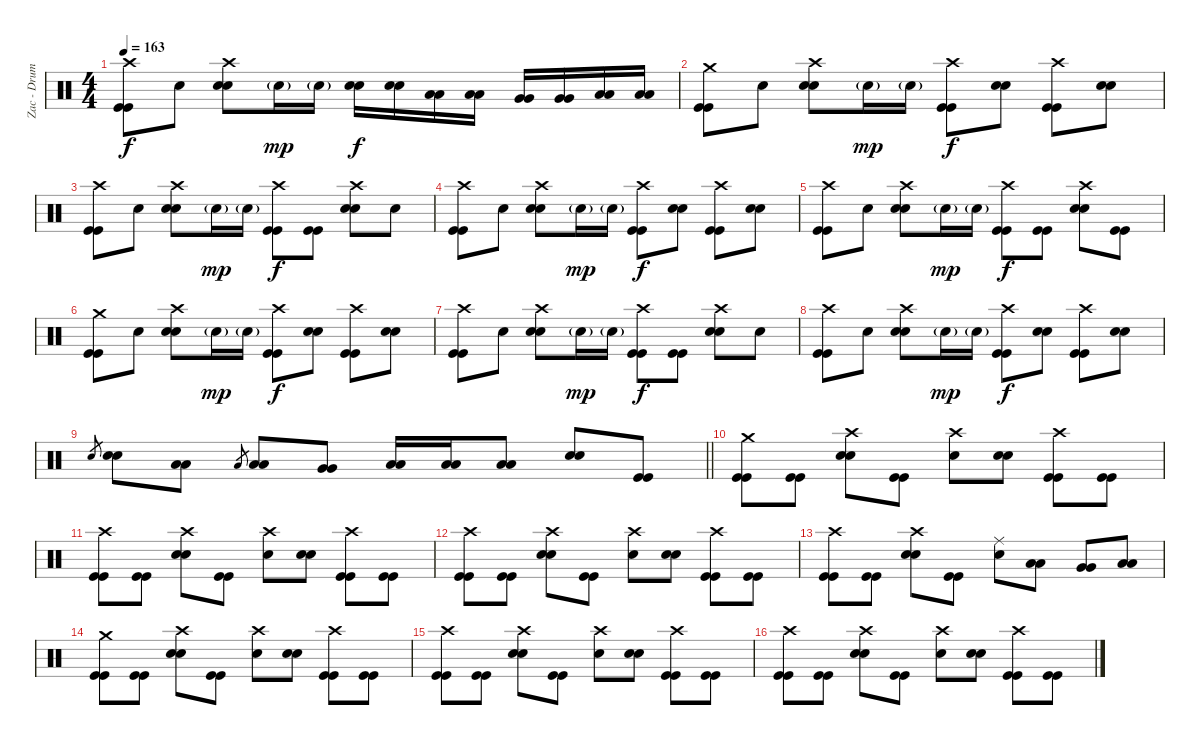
\track ("Zac - Drums" "Zac - Drum") {instrument percussion}
\staff {score}
\articulation defaults
\ts (4 4)
\tempo 163
\clef neutral
\ks c
("Crash high (hit)" "Kick (hit)" "Kick (hit)").8{dy f} "Snare (hit)".8 ("Crash high (hit)" "Electric Snare (hit)" "Electric Snare (hit)").8 "Electric Snare (hit)"{g}.16{dy mp} "Electric Snare (hit)"{g}.16 ("Electric Snare (hit)" "Electric Snare (hit)").16{dy f} ("Electric Snare (hit)" "Electric Snare (hit)").16 ("Low Tom (hit)" "Low Tom (hit)").16 ("Low Tom (hit)" "Low Tom (hit)").16 ("Very Low Tom (hit)" "Very Low Tom (hit)").16 ("Very Low Tom (hit)" "Very Low Tom (hit)").16 ("Low Floor Tom (hit)" "Low Floor Tom (hit)").16 ("Low Floor Tom (hit)" "Low Floor Tom (hit)").16 |
("Crash medium (hit)" "Kick (hit)" "Kick (hit)").8 "Snare (hit)".8 ("Crash high (hit)" "Electric Snare (hit)" "Electric Snare (hit)").8 "Electric Snare (hit)"{g}.16{dy mp} "Electric Snare (hit)"{g}.16 ("Crash high (hit)" "Kick (hit)" "Kick (hit)").8{dy f} ("Electric Snare (hit)" "Electric Snare (hit)").8 ("Crash high (hit)" "Kick (hit)" "Kick (hit)").8 ("Electric Snare (hit)" "Electric Snare (hit)").8 |
("Crash high (hit)" "Kick (hit)" "Kick (hit)").8 "Snare (hit)".8 ("Crash high (hit)" "Electric Snare (hit)" "Electric Snare (hit)").8 "Electric Snare (hit)"{g}.16{dy mp} "Electric Snare (hit)"{g}.16 ("Crash high (hit)" "Kick (hit)" "Kick (hit)").8{dy f} ("Kick (hit)" "Kick (hit)").8 ("Crash high (hit)" "Electric Snare (hit)" "Electric Snare (hit)").8 "Snare (hit)".8 |
("Crash high (hit)" "Kick (hit)" "Kick (hit)").8 "Snare (hit)".8 ("Crash high (hit)" "Electric Snare (hit)" "Electric Snare (hit)").8 "Electric Snare (hit)"{g}.16{dy mp} "Electric Snare (hit)"{g}.16 ("Crash high (hit)" "Kick (hit)" "Kick (hit)").8{dy f} ("Electric Snare (hit)" "Electric Snare (hit)").8 ("Crash high (hit)" "Kick (hit)" "Kick (hit)").8 ("Electric Snare (hit)" "Electric Snare (hit)").8 |
("Crash high (hit)" "Kick (hit)" "Kick (hit)").8 "Snare (hit)".8 ("Crash high (hit)" "Electric Snare (hit)" "Electric Snare (hit)").8 "Electric Snare (hit)"{g}.16{dy mp} "Electric Snare (hit)"{g}.16 ("Crash high (hit)" "Kick (hit)" "Kick (hit)").8{dy f} ("Kick (hit)" "Kick (hit)").8 ("Crash high (hit)" "Electric Snare (hit)" "Electric Snare (hit)").8 ("Kick (hit)" "Kick (hit)").8 |
("Crash medium (hit)" "Kick (hit)" "Kick (hit)").8 "Snare (hit)".8 ("Crash high (hit)" "Electric Snare (hit)" "Electric Snare (hit)").8 "Electric Snare (hit)"{g}.16{dy mp} "Electric Snare (hit)"{g}.16 ("Crash high (hit)" "Kick (hit)" "Kick (hit)").8{dy f} ("Electric Snare (hit)" "Electric Snare (hit)").8 ("Crash high (hit)" "Kick (hit)" "Kick (hit)").8 ("Electric Snare (hit)" "Electric Snare (hit)").8 |
("Crash high (hit)" "Kick (hit)" "Kick (hit)").8 "Snare (hit)".8 ("Crash high (hit)" "Electric Snare (hit)" "Electric Snare (hit)").8 "Electric Snare (hit)"{g}.16{dy mp} "Electric Snare (hit)"{g}.16 ("Crash high (hit)" "Kick (hit)" "Kick (hit)").8{dy f} ("Kick (hit)" "Kick (hit)").8 ("Crash high (hit)" "Electric Snare (hit)" "Electric Snare (hit)").8 "Snare (hit)".8 |
("Crash high (hit)" "Kick (hit)" "Kick (hit)").8 "Snare (hit)".8 ("Crash high (hit)" "Electric Snare (hit)" "Electric Snare (hit)").8 "Electric Snare (hit)"{g}.16{dy mp} "Electric Snare (hit)"{g}.16 ("Crash high (hit)" "Kick (hit)" "Kick (hit)").8{dy f} ("Electric Snare (hit)" "Electric Snare (hit)").8 ("Crash high (hit)" "Kick (hit)" "Kick (hit)").8 ("Electric Snare (hit)" "Electric Snare (hit)").8 |
\barLineRight lightlight "Electric Snare (hit)".8{gr}
("Electric Snare (hit)" "Electric Snare (hit)").8 ("Low Tom (hit)" "Low Tom (hit)").8 "Low Tom (hit)".8{gr} ("Low Tom (hit)" "Low Tom (hit)").8 ("Very Low Tom (hit)" "Very Low Tom (hit)").8 ("Low Tom (hit)" "Low Tom (hit)").16 ("Low Tom (hit)" "Low Tom (hit)").16 ("Low Tom (hit)" "Low Tom (hit)").8 ("Electric Snare (hit)" "Electric Snare (hit)").8 ("Kick (hit)" "Kick (hit)").8 |
("Crash medium (hit)" "Kick (hit)" "Kick (hit)").8 ("Kick (hit)" "Kick (hit)").8 ("Crash high (hit)" "Electric Snare (hit)" "Electric Snare (hit)").8 ("Kick (hit)" "Kick (hit)").8 ("Crash high (hit)" "Snare (hit)").8 ("Electric Snare (hit)" "Electric Snare (hit)").8 ("Crash high (hit)" "Kick (hit)" "Kick (hit)").8 ("Kick (hit)" "Kick (hit)").8 |
("Crash high (hit)" "Kick (hit)" "Kick (hit)").8 ("Kick (hit)" "Kick (hit)").8 ("Crash high (hit)" "Electric Snare (hit)" "Electric Snare (hit)").8 ("Kick (hit)" "Kick (hit)").8 ("Crash high (hit)" "Snare (hit)").8 ("Electric Snare (hit)" "Electric Snare (hit)").8 ("Crash high (hit)" "Kick (hit)" "Kick (hit)").8 ("Kick (hit)" "Kick (hit)").8 |
("Crash high (hit)" "Kick (hit)" "Kick (hit)").8 ("Kick (hit)" "Kick (hit)").8 ("Crash high (hit)" "Electric Snare (hit)" "Electric Snare (hit)").8 ("Kick (hit)" "Kick (hit)").8 ("Crash high (hit)" "Snare (hit)").8 ("Electric Snare (hit)" "Electric Snare (hit)").8 ("Crash high (hit)" "Kick (hit)" "Kick (hit)").8 ("Kick (hit)" "Kick (hit)").8 |
("Crash high (hit)" "Kick (hit)" "Kick (hit)").8 ("Kick (hit)" "Kick (hit)").8 ("Crash high (hit)" "Electric Snare (hit)" "Electric Snare (hit)").8 ("Kick (hit)" "Kick (hit)").8 ("Ride (middle)" "Snare (hit)").8 ("Low Tom (hit)" "Low Tom (hit)").8 ("Very Low Tom (hit)" "Very Low Tom (hit)").8 ("Low Floor Tom (hit)" "Low Floor Tom (hit)").8 |
("Crash medium (hit)" "Kick (hit)" "Kick (hit)").8 ("Kick (hit)" "Kick (hit)").8 ("Crash high (hit)" "Electric Snare (hit)" "Electric Snare (hit)").8 ("Kick (hit)" "Kick (hit)").8 ("Crash high (hit)" "Snare (hit)").8 ("Electric Snare (hit)" "Electric Snare (hit)").8 ("Crash high (hit)" "Kick (hit)" "Kick (hit)").8 ("Kick (hit)" "Kick (hit)").8 |
("Crash high (hit)" "Kick (hit)" "Kick (hit)").8 ("Kick (hit)" "Kick (hit)").8 ("Crash high (hit)" "Electric Snare (hit)" "Electric Snare (hit)").8 ("Kick (hit)" "Kick (hit)").8 ("Crash high (hit)" "Snare (hit)").8 ("Electric Snare (hit)" "Electric Snare (hit)").8 ("Crash high (hit)" "Kick (hit)" "Kick (hit)").8 ("Kick (hit)" "Kick (hit)").8 |
("Crash high (hit)" "Kick (hit)" "Kick (hit)").8 ("Kick (hit)" "Kick (hit)").8 ("Crash high (hit)" "Electric Snare (hit)" "Electric Snare (hit)").8 ("Kick (hit)" "Kick (hit)").8 ("Crash high (hit)" "Snare (hit)").8 ("Electric Snare (hit)" "Electric Snare (hit)").8 ("Crash high (hit)" "Kick (hit)" "Kick (hit)").8 ("Kick (hit)" "Kick (hit)").8
